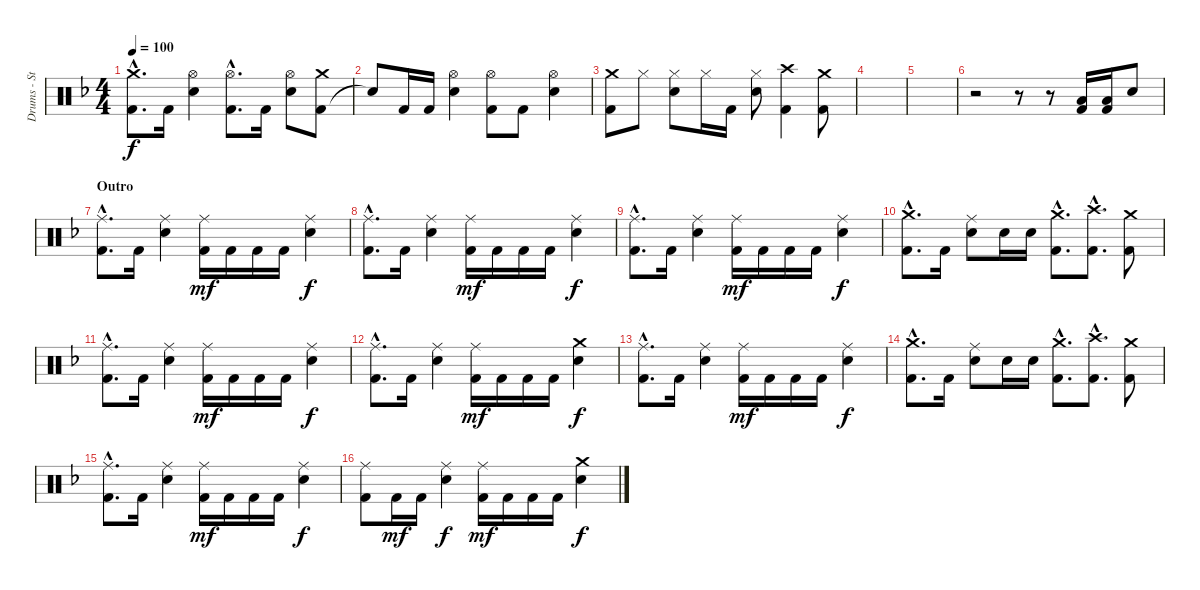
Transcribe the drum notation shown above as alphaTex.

\track ("Drums - Steve Wacholz" "Drums - St") {instrument percussion}
\staff {score}
\articulation defaults
\ts (4 4)
\tempo 100
\clef neutral
\ks f
("Kick (hit) 2"{hac} "Crash medium (hit)"{hac}).8{d dy f} "Kick (hit) 2".16 ("Electric Snare (hit)" "Hi-Hat (open)").4 ("Kick (hit) 2"{hac} "Hi-Hat (open)"{hac}).8{d} "Kick (hit) 2".16 ("Electric Snare (hit)" "Hi-Hat (open)").8 ("Kick (hit) 2" "Crash medium (hit)").8 |
"Snare (hit)"{t}.8 "Kick (hit) 2".16 "Kick (hit) 2".16 ("Electric Snare (hit)" "Hi-Hat (open)").4 ("Kick (hit) 2" "Hi-Hat (open)").8 "Kick (hit) 2".8 ("Electric Snare (hit)" "Hi-Hat (open)").4 |
("Kick (hit) 2" "Crash medium (hit)").8 "Hi-Hat (closed)".8 ("Electric Snare (hit)" "Hi-Hat (closed)").8 "Hi-Hat (closed)".16 "Kick (hit) 2".16 ("Electric Snare (hit)" "Hi-Hat (closed)").8 ("Kick (hit) 2" "Crash high (hit)").4 ("Kick (hit) 2" "Crash medium (hit)").8 |
|
|
r.2 r.8 r.8 ("Kick (hit) 2" "Low Tom (hit)").16 ("Kick (hit) 2" "Low Tom (hit)").16 "Electric Snare (hit)".8 |
\section ("" "Outro")
("Kick (hit) 2"{hac} "Ride (middle)"{hac}).8{d} "Kick (hit) 2".16 ("Electric Snare (hit)" "Ride (middle)").4 ("Kick (hit) 2" "Ride (middle)").16{dy mf} "Kick (hit) 2".16 "Kick (hit) 2".16 "Kick (hit) 2".16 ("Electric Snare (hit)" "Ride (middle)").4{dy f} |
("Kick (hit) 2"{hac} "Ride (middle)"{hac}).8{d} "Kick (hit) 2".16 ("Electric Snare (hit)" "Ride (middle)").4 ("Kick (hit) 2" "Ride (middle)").16{dy mf} "Kick (hit) 2".16 "Kick (hit) 2".16 "Kick (hit) 2".16 ("Electric Snare (hit)" "Ride (middle)").4{dy f} |
("Kick (hit) 2"{hac} "Ride (middle)"{hac}).8{d} "Kick (hit) 2".16 ("Electric Snare (hit)" "Ride (middle)").4 ("Kick (hit) 2" "Ride (middle)").16{dy mf} "Kick (hit) 2".16 "Kick (hit) 2".16 "Kick (hit) 2".16 ("Electric Snare (hit)" "Ride (middle)").4{dy f} |
("Kick (hit) 2"{hac} "Crash medium (hit)"{hac}).8{d} "Kick (hit) 2".16 ("Electric Snare (hit)" "Ride (middle)").8 "Electric Snare (hit)".16 "Electric Snare (hit)".16 ("Kick (hit) 2"{hac} "Crash medium (hit)"{hac}).8{d} ("Kick (hit) 2"{hac} "Crash high (hit)"{hac}).8{d} ("Kick (hit) 2" "Crash medium (hit)").8 |
("Kick (hit) 2"{hac} "Ride (middle)"{hac}).8{d} "Kick (hit) 2".16 ("Electric Snare (hit)" "Ride (middle)").4 ("Kick (hit) 2" "Ride (middle)").16{dy mf} "Kick (hit) 2".16 "Kick (hit) 2".16 "Kick (hit) 2".16 ("Electric Snare (hit)" "Ride (middle)").4{dy f} |
("Kick (hit) 2"{hac} "Ride (middle)"{hac}).8{d} "Kick (hit) 2".16 ("Electric Snare (hit)" "Ride (middle)").4 ("Kick (hit) 2" "Ride (middle)").16{dy mf} "Kick (hit) 2".16 "Kick (hit) 2".16 "Kick (hit) 2".16 ("Electric Snare (hit)" "Crash medium (hit)").4{dy f} |
("Kick (hit) 2"{hac} "Ride (middle)"{hac}).8{d} "Kick (hit) 2".16 ("Electric Snare (hit)" "Ride (middle)").4 ("Kick (hit) 2" "Ride (middle)").16{dy mf} "Kick (hit) 2".16 "Kick (hit) 2".16 "Kick (hit) 2".16 ("Electric Snare (hit)" "Ride (middle)").4{dy f} |
("Kick (hit) 2"{hac} "Crash medium (hit)"{hac}).8{d} "Kick (hit) 2".16 ("Electric Snare (hit)" "Ride (middle)").8 "Electric Snare (hit)".16 "Electric Snare (hit)".16 ("Kick (hit) 2"{hac} "Crash medium (hit)"{hac}).8{d} ("Kick (hit) 2"{hac} "Crash high (hit)"{hac}).8{d} ("Kick (hit) 2" "Crash medium (hit)").8 |
("Kick (hit) 2"{hac} "Ride (middle)"{hac}).8{d} "Kick (hit) 2".16 ("Electric Snare (hit)" "Ride (middle)").4 ("Kick (hit) 2" "Ride (middle)").16{dy mf} "Kick (hit) 2".16 "Kick (hit) 2".16 "Kick (hit) 2".16 ("Electric Snare (hit)" "Ride (middle)").4{dy f} |
("Kick (hit) 2" "Ride (middle)").8 "Kick (hit) 2".16{dy mf} "Kick (hit) 2".16 ("Electric Snare (hit)" "Ride (middle)").4{dy f} ("Kick (hit) 2" "Ride (middle)").16{dy mf} "Kick (hit) 2".16 "Kick (hit) 2".16 "Kick (hit) 2".16 ("Electric Snare (hit)" "Crash medium (hit)").4{dy f}
